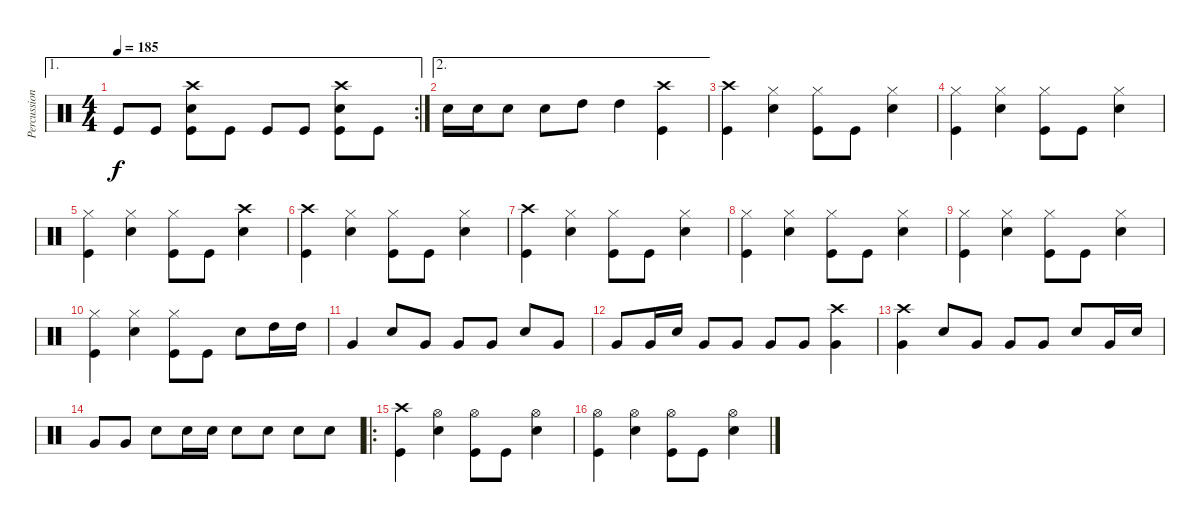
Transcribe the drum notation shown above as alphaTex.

\track ("Percussion" "Percussion") {instrument percussion}
\staff {score}
\articulation defaults
\ae 1
\rc 2
\ts (4 4)
\tempo 185
\clef neutral
\ks c "Kick (hit)".8{dy f} "Kick (hit)".8
("Snare (hit) 2" "Kick (hit)" "Crash high (hit)").8 "Kick (hit)".8 "Kick (hit)".8 "Kick (hit)".8 ("Snare (hit) 2" "Kick (hit)" "Crash high (hit)").8 "Kick (hit)".8 |
\ae 2 "Snare (hit) 2".16 "Snare (hit) 2".16 "Snare (hit) 2".8 "Snare (hit) 2".8 "High Tom (hit)".8 "High Tom (hit)".4
("Kick (hit)" "Crash high (hit)").4 |
("Crash high (hit)" "Kick (hit)").4 ("Hi-Hat (closed)" "Snare (hit) 2").4 ("Hi-Hat (closed)" "Kick (hit)").8 "Kick (hit)".8 ("Hi-Hat (closed)" "Snare (hit) 2").4 |
("Hi-Hat (closed)" "Kick (hit)").4 ("Hi-Hat (closed)" "Snare (hit) 2").4 ("Hi-Hat (closed)" "Kick (hit)").8 "Kick (hit)".8 ("Hi-Hat (closed)" "Snare (hit) 2").4 |
("Hi-Hat (closed)" "Kick (hit)").4 ("Hi-Hat (closed)" "Snare (hit) 2").4 ("Hi-Hat (closed)" "Kick (hit)").8 "Kick (hit)".8 ("Crash high (hit)" "Snare (hit) 2").4 |
("Crash high (hit)" "Kick (hit)").4 ("Hi-Hat (closed)" "Snare (hit) 2").4 ("Hi-Hat (closed)" "Kick (hit)").8 "Kick (hit)".8 ("Hi-Hat (closed)" "Snare (hit) 2").4 |
("Crash high (hit)" "Kick (hit)").4 ("Hi-Hat (closed)" "Snare (hit) 2").4 ("Hi-Hat (closed)" "Kick (hit)").8 "Kick (hit)".8 ("Hi-Hat (closed)" "Snare (hit) 2").4 |
("Hi-Hat (closed)" "Kick (hit)").4 ("Hi-Hat (closed)" "Snare (hit) 2").4 ("Hi-Hat (closed)" "Kick (hit)").8 "Kick (hit)".8 ("Hi-Hat (closed)" "Snare (hit) 2").4 |
("Hi-Hat (closed)" "Kick (hit)").4 ("Hi-Hat (closed)" "Snare (hit) 2").4 ("Hi-Hat (closed)" "Kick (hit)").8 "Kick (hit)".8 ("Hi-Hat (closed)" "Snare (hit) 2").4 |
("Hi-Hat (closed)" "Kick (hit)").4 ("Hi-Hat (closed)" "Snare (hit) 2").4 ("Hi-Hat (closed)" "Kick (hit)").8 "Kick (hit)".8 "Snare (hit) 2".8 "High Tom (hit)".16 "High Tom (hit)".16 |
"Very Low Tom (hit)".4 "Snare (hit) 2".8 "Very Low Tom (hit)".8 "Very Low Tom (hit)".8 "Very Low Tom (hit)".8 "Snare (hit) 2".8 "Very Low Tom (hit)".8 |
"Very Low Tom (hit)".8 "Very Low Tom (hit)".16 "Snare (hit) 2".16 "Very Low Tom (hit)".8 "Very Low Tom (hit)".8 "Very Low Tom (hit)".8 "Very Low Tom (hit)".8 ("Very Low Tom (hit)" "Crash high (hit)").4 |
("Very Low Tom (hit)" "Crash high (hit)").4 "Snare (hit) 2".8 "Very Low Tom (hit)".8 "Very Low Tom (hit)".8 "Very Low Tom (hit)".8 "Snare (hit) 2".8 "Very Low Tom (hit)".16 "Snare (hit) 2".16 |
"Very Low Tom (hit)".8 "Very Low Tom (hit)".8 "Snare (hit) 2".8 "Snare (hit) 2".16 "Snare (hit) 2".16 "Snare (hit) 2".8 "Snare (hit) 2".8 "Snare (hit) 2".8 "Snare (hit) 2".8 |
\ro
("Crash high (hit)" "Kick (hit)").4 ("Hi-Hat (open)" "Snare (hit) 2").4 ("Hi-Hat (open)" "Kick (hit)").8 "Kick (hit)".8 ("Hi-Hat (open)" "Snare (hit) 2").4 |
("Hi-Hat (open)" "Kick (hit)").4 ("Hi-Hat (open)" "Snare (hit) 2").4 ("Hi-Hat (open)" "Kick (hit)").8 "Kick (hit)".8 ("Hi-Hat (open)" "Snare (hit) 2").4
